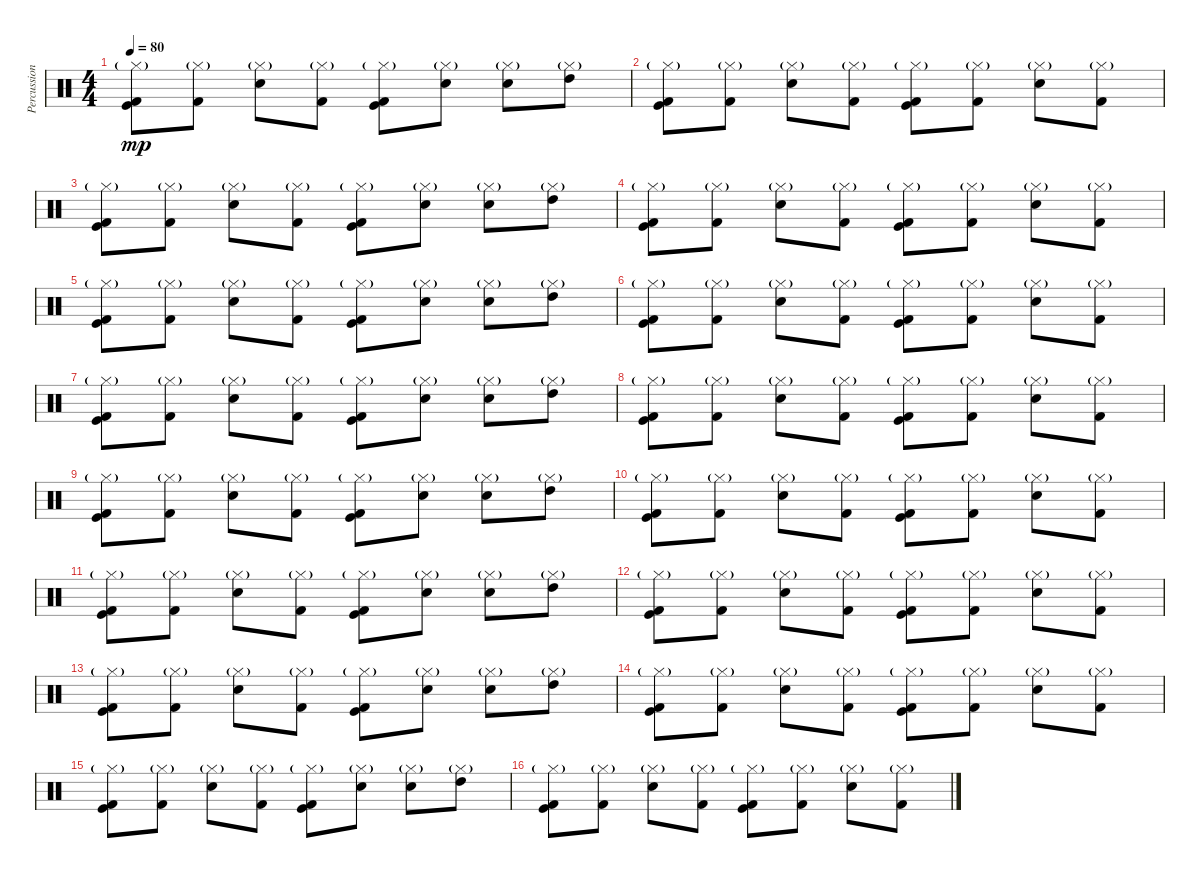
\track ("Percussion" "Percussion") {instrument percussion}
\staff {score}
\articulation defaults
\ts (4 4)
\tempo 80
\clef neutral
\ks c
("Hi-Hat (closed)"{g} "Kick (hit) 2" "Kick (hit)").8{dy mp} ("Hi-Hat (closed)"{g} "Kick (hit) 2").8 ("Hi-Hat (closed)"{g} "Electric Snare (hit)").8 ("Hi-Hat (closed)"{g} "Kick (hit) 2").8 ("Hi-Hat (closed)"{g} "Kick (hit) 2" "Kick (hit)").8 ("Hi-Hat (closed)"{g} "Electric Snare (hit)").8 ("Hi-Hat (closed)"{g} "Snare (hit) 2").8 ("Hi-Hat (closed)"{g} "High Tom (hit)").8 |
("Hi-Hat (closed)"{g} "Kick (hit) 2" "Kick (hit)").8 ("Hi-Hat (closed)"{g} "Kick (hit) 2").8 ("Hi-Hat (closed)"{g} "Electric Snare (hit)").8 ("Hi-Hat (closed)"{g} "Kick (hit) 2").8 ("Hi-Hat (closed)"{g} "Kick (hit) 2" "Kick (hit)").8 ("Hi-Hat (closed)"{g} "Kick (hit) 2").8 ("Hi-Hat (closed)"{g} "Electric Snare (hit)").8 ("Hi-Hat (closed)"{g} "Kick (hit) 2").8 |
("Hi-Hat (closed)"{g} "Kick (hit) 2" "Kick (hit)").8 ("Hi-Hat (closed)"{g} "Kick (hit) 2").8 ("Hi-Hat (closed)"{g} "Electric Snare (hit)").8 ("Hi-Hat (closed)"{g} "Kick (hit) 2").8 ("Hi-Hat (closed)"{g} "Kick (hit) 2" "Kick (hit)").8 ("Hi-Hat (closed)"{g} "Electric Snare (hit)").8 ("Hi-Hat (closed)"{g} "Snare (hit) 2").8 ("Hi-Hat (closed)"{g} "High Tom (hit)").8 |
("Hi-Hat (closed)"{g} "Kick (hit) 2" "Kick (hit)").8 ("Hi-Hat (closed)"{g} "Kick (hit) 2").8 ("Hi-Hat (closed)"{g} "Electric Snare (hit)").8 ("Hi-Hat (closed)"{g} "Kick (hit) 2").8 ("Hi-Hat (closed)"{g} "Kick (hit) 2" "Kick (hit)").8 ("Hi-Hat (closed)"{g} "Kick (hit) 2").8 ("Hi-Hat (closed)"{g} "Electric Snare (hit)").8 ("Hi-Hat (closed)"{g} "Kick (hit) 2").8 |
("Hi-Hat (closed)"{g} "Kick (hit) 2" "Kick (hit)").8 ("Hi-Hat (closed)"{g} "Kick (hit) 2").8 ("Hi-Hat (closed)"{g} "Electric Snare (hit)").8 ("Hi-Hat (closed)"{g} "Kick (hit) 2").8 ("Hi-Hat (closed)"{g} "Kick (hit) 2" "Kick (hit)").8 ("Hi-Hat (closed)"{g} "Electric Snare (hit)").8 ("Hi-Hat (closed)"{g} "Snare (hit) 2").8 ("Hi-Hat (closed)"{g} "High Tom (hit)").8 |
("Hi-Hat (closed)"{g} "Kick (hit) 2" "Kick (hit)").8 ("Hi-Hat (closed)"{g} "Kick (hit) 2").8 ("Hi-Hat (closed)"{g} "Electric Snare (hit)").8 ("Hi-Hat (closed)"{g} "Kick (hit) 2").8 ("Hi-Hat (closed)"{g} "Kick (hit) 2" "Kick (hit)").8 ("Hi-Hat (closed)"{g} "Kick (hit) 2").8 ("Hi-Hat (closed)"{g} "Electric Snare (hit)").8 ("Hi-Hat (closed)"{g} "Kick (hit) 2").8 |
("Hi-Hat (closed)"{g} "Kick (hit) 2" "Kick (hit)").8 ("Hi-Hat (closed)"{g} "Kick (hit) 2").8 ("Hi-Hat (closed)"{g} "Electric Snare (hit)").8 ("Hi-Hat (closed)"{g} "Kick (hit) 2").8 ("Hi-Hat (closed)"{g} "Kick (hit) 2" "Kick (hit)").8 ("Hi-Hat (closed)"{g} "Electric Snare (hit)").8 ("Hi-Hat (closed)"{g} "Snare (hit) 2").8 ("Hi-Hat (closed)"{g} "High Tom (hit)").8 |
("Hi-Hat (closed)"{g} "Kick (hit) 2" "Kick (hit)").8 ("Hi-Hat (closed)"{g} "Kick (hit) 2").8 ("Hi-Hat (closed)"{g} "Electric Snare (hit)").8 ("Hi-Hat (closed)"{g} "Kick (hit) 2").8 ("Hi-Hat (closed)"{g} "Kick (hit) 2" "Kick (hit)").8 ("Hi-Hat (closed)"{g} "Kick (hit) 2").8 ("Hi-Hat (closed)"{g} "Electric Snare (hit)").8 ("Hi-Hat (closed)"{g} "Kick (hit) 2").8 |
("Hi-Hat (closed)"{g} "Kick (hit) 2" "Kick (hit)").8 ("Hi-Hat (closed)"{g} "Kick (hit) 2").8 ("Hi-Hat (closed)"{g} "Electric Snare (hit)").8 ("Hi-Hat (closed)"{g} "Kick (hit) 2").8 ("Hi-Hat (closed)"{g} "Kick (hit) 2" "Kick (hit)").8 ("Hi-Hat (closed)"{g} "Electric Snare (hit)").8 ("Hi-Hat (closed)"{g} "Snare (hit) 2").8 ("Hi-Hat (closed)"{g} "High Tom (hit)").8 |
("Hi-Hat (closed)"{g} "Kick (hit) 2" "Kick (hit)").8 ("Hi-Hat (closed)"{g} "Kick (hit) 2").8 ("Hi-Hat (closed)"{g} "Electric Snare (hit)").8 ("Hi-Hat (closed)"{g} "Kick (hit) 2").8 ("Hi-Hat (closed)"{g} "Kick (hit) 2" "Kick (hit)").8 ("Hi-Hat (closed)"{g} "Kick (hit) 2").8 ("Hi-Hat (closed)"{g} "Electric Snare (hit)").8 ("Hi-Hat (closed)"{g} "Kick (hit) 2").8 |
("Hi-Hat (closed)"{g} "Kick (hit) 2" "Kick (hit)").8 ("Hi-Hat (closed)"{g} "Kick (hit) 2").8 ("Hi-Hat (closed)"{g} "Electric Snare (hit)").8 ("Hi-Hat (closed)"{g} "Kick (hit) 2").8 ("Hi-Hat (closed)"{g} "Kick (hit) 2" "Kick (hit)").8 ("Hi-Hat (closed)"{g} "Electric Snare (hit)").8 ("Hi-Hat (closed)"{g} "Snare (hit) 2").8 ("Hi-Hat (closed)"{g} "High Tom (hit)").8 |
("Hi-Hat (closed)"{g} "Kick (hit) 2" "Kick (hit)").8 ("Hi-Hat (closed)"{g} "Kick (hit) 2").8 ("Hi-Hat (closed)"{g} "Electric Snare (hit)").8 ("Hi-Hat (closed)"{g} "Kick (hit) 2").8 ("Hi-Hat (closed)"{g} "Kick (hit) 2" "Kick (hit)").8 ("Hi-Hat (closed)"{g} "Kick (hit) 2").8 ("Hi-Hat (closed)"{g} "Electric Snare (hit)").8 ("Hi-Hat (closed)"{g} "Kick (hit) 2").8 |
("Hi-Hat (closed)"{g} "Kick (hit) 2" "Kick (hit)").8 ("Hi-Hat (closed)"{g} "Kick (hit) 2").8 ("Hi-Hat (closed)"{g} "Electric Snare (hit)").8 ("Hi-Hat (closed)"{g} "Kick (hit) 2").8 ("Hi-Hat (closed)"{g} "Kick (hit) 2" "Kick (hit)").8 ("Hi-Hat (closed)"{g} "Electric Snare (hit)").8 ("Hi-Hat (closed)"{g} "Snare (hit) 2").8 ("Hi-Hat (closed)"{g} "High Tom (hit)").8 |
("Hi-Hat (closed)"{g} "Kick (hit) 2" "Kick (hit)").8 ("Hi-Hat (closed)"{g} "Kick (hit) 2").8 ("Hi-Hat (closed)"{g} "Electric Snare (hit)").8 ("Hi-Hat (closed)"{g} "Kick (hit) 2").8 ("Hi-Hat (closed)"{g} "Kick (hit) 2" "Kick (hit)").8 ("Hi-Hat (closed)"{g} "Kick (hit) 2").8 ("Hi-Hat (closed)"{g} "Electric Snare (hit)").8 ("Hi-Hat (closed)"{g} "Kick (hit) 2").8 |
("Hi-Hat (closed)"{g} "Kick (hit) 2" "Kick (hit)").8 ("Hi-Hat (closed)"{g} "Kick (hit) 2").8 ("Hi-Hat (closed)"{g} "Electric Snare (hit)").8 ("Hi-Hat (closed)"{g} "Kick (hit) 2").8 ("Hi-Hat (closed)"{g} "Kick (hit) 2" "Kick (hit)").8 ("Hi-Hat (closed)"{g} "Electric Snare (hit)").8 ("Hi-Hat (closed)"{g} "Snare (hit) 2").8 ("Hi-Hat (closed)"{g} "High Tom (hit)").8 |
("Hi-Hat (closed)"{g} "Kick (hit) 2" "Kick (hit)").8 ("Hi-Hat (closed)"{g} "Kick (hit) 2").8 ("Hi-Hat (closed)"{g} "Electric Snare (hit)").8 ("Hi-Hat (closed)"{g} "Kick (hit) 2").8 ("Hi-Hat (closed)"{g} "Kick (hit) 2" "Kick (hit)").8 ("Hi-Hat (closed)"{g} "Kick (hit) 2").8 ("Hi-Hat (closed)"{g} "Electric Snare (hit)").8 ("Hi-Hat (closed)"{g} "Kick (hit) 2").8
